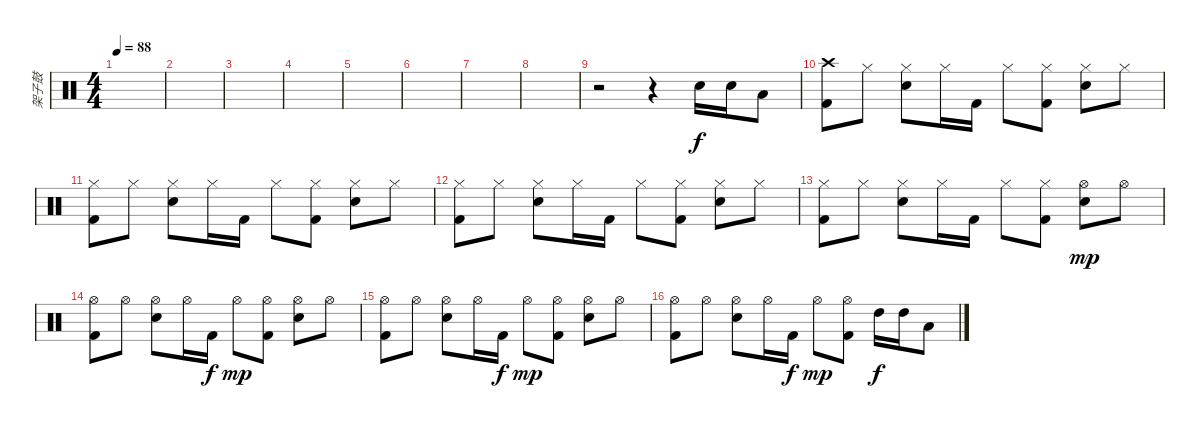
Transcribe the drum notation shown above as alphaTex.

\track ("架子鼓" "架子鼓") {instrument percussion}
\staff {score}
\articulation defaults
\ts (4 4)
\tempo 88
\clef neutral
\ks c
|
|
|
|
|
|
|
|
r.2 r.4 "Electric Snare (hit)".16 "Electric Snare (hit)".16 "Low Tom (hit)".8 |
("Crash high (hit)" "Kick (hit) 2").8 "Hi-Hat (closed)".8 ("Hi-Hat (closed)" "Electric Snare (hit)").8 "Hi-Hat (closed)".16 "Kick (hit) 2".16 "Hi-Hat (closed)".8 ("Hi-Hat (closed)" "Kick (hit) 2").8 ("Hi-Hat (closed)" "Electric Snare (hit)").8 "Hi-Hat (closed)".8 |
("Hi-Hat (closed)" "Kick (hit) 2").8 "Hi-Hat (closed)".8 ("Hi-Hat (closed)" "Electric Snare (hit)").8 "Hi-Hat (closed)".16 "Kick (hit) 2".16 "Hi-Hat (closed)".8 ("Hi-Hat (closed)" "Kick (hit) 2").8 ("Hi-Hat (closed)" "Electric Snare (hit)").8 "Hi-Hat (closed)".8 |
("Hi-Hat (closed)" "Kick (hit) 2").8 "Hi-Hat (closed)".8 ("Hi-Hat (closed)" "Electric Snare (hit)").8 "Hi-Hat (closed)".16 "Kick (hit) 2".16 "Hi-Hat (closed)".8 ("Hi-Hat (closed)" "Kick (hit) 2").8 ("Hi-Hat (closed)" "Electric Snare (hit)").8 "Hi-Hat (closed)".8 |
("Hi-Hat (closed)" "Kick (hit) 2").8 "Hi-Hat (closed)".8 ("Hi-Hat (closed)" "Electric Snare (hit)").8 "Hi-Hat (closed)".16 "Kick (hit) 2".16 "Hi-Hat (closed)".8 ("Hi-Hat (closed)" "Kick (hit) 2").8 ("Hi-Hat (open)" "Electric Snare (hit)").8{dy mp} "Hi-Hat (open)".8 |
("Hi-Hat (open)" "Kick (hit) 2").8 "Hi-Hat (open)".8 ("Hi-Hat (open)" "Electric Snare (hit)").8 "Hi-Hat (open)".16 "Kick (hit) 2".16{dy f} "Hi-Hat (open)".8{dy mp} ("Hi-Hat (open)" "Kick (hit) 2").8 ("Hi-Hat (open)" "Electric Snare (hit)").8 "Hi-Hat (open)".8 |
("Hi-Hat (open)" "Kick (hit) 2").8 "Hi-Hat (open)".8 ("Hi-Hat (open)" "Electric Snare (hit)").8 "Hi-Hat (open)".16 "Kick (hit) 2".16{dy f} "Hi-Hat (open)".8{dy mp} ("Hi-Hat (open)" "Kick (hit) 2").8 ("Hi-Hat (open)" "Electric Snare (hit)").8 "Hi-Hat (open)".8 |
("Hi-Hat (open)" "Kick (hit) 2").8 "Hi-Hat (open)".8 ("Hi-Hat (open)" "Electric Snare (hit)").8 "Hi-Hat (open)".16 "Kick (hit) 2".16{dy f} "Hi-Hat (open)".8{dy mp} ("Hi-Hat (open)" "Kick (hit) 2").8 "High Tom (hit)".16{dy f} "High Tom (hit)".16 "Low Tom (hit)".8
